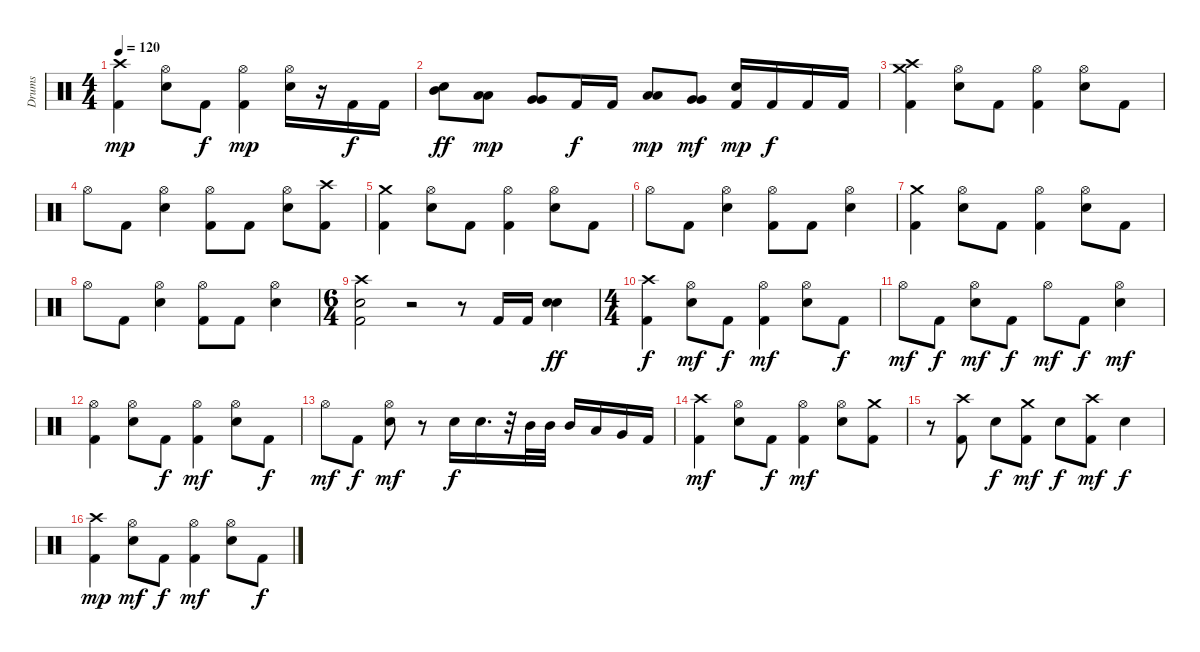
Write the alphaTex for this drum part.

\track ("Drums" "Drums") {instrument percussion}
\staff {score}
\articulation defaults
\ts (4 4)
\tempo 120
\clef neutral
\ks c
("Crash high (hit)" "Kick (hit) 2").4{dy mp} ("Hi-Hat (open)" "Snare (hit) 2").8 "Kick (hit) 2".8{dy f} ("Hi-Hat (open)" "Kick (hit) 2").4{dy mp} ("Hi-Hat (open)" "Snare (hit) 2").16 r.16 "Kick (hit) 2".16{dy f} "Kick (hit) 2".16 |
("Mid Tom (hit)" "Electric Snare (hit)").8{dy ff} ("Low Tom (hit)" "Low Tom (hit)").8{dy mp} ("Very Low Tom (hit)" "Very Low Tom (hit)").8 "Kick (hit) 2".16{dy f} "Kick (hit) 2".16 ("Low Tom (hit)" "Low Tom (hit)").8{dy mp} ("Very Low Tom (hit)" "Very Low Tom (hit)").8{dy mf} ("Electric Snare (hit)" "Kick (hit) 2").16{dy mp} "Kick (hit) 2".16{dy f} "Kick (hit) 2".16 "Kick (hit) 2".16 |
("Crash high (hit)" "Crash medium (hit)" "Kick (hit) 2").4{volume 11} ("Hi-Hat (open)" "Electric Snare (hit)").8 "Kick (hit) 2".8 ("Hi-Hat (open)" "Kick (hit) 2").4 ("Hi-Hat (open)" "Electric Snare (hit)").8 "Kick (hit) 2".8 |
"Hi-Hat (open)".8 "Kick (hit) 2".8 ("Hi-Hat (open)" "Electric Snare (hit)").4 ("Hi-Hat (open)" "Kick (hit) 2").8 "Kick (hit) 2".8 ("Hi-Hat (open)" "Electric Snare (hit)").8 ("Crash high (hit)" "Kick (hit) 2").8 |
("Crash medium (hit)" "Kick (hit) 2").4 ("Hi-Hat (open)" "Electric Snare (hit)").8 "Kick (hit) 2".8 ("Hi-Hat (open)" "Kick (hit) 2").4 ("Hi-Hat (open)" "Electric Snare (hit)").8 "Kick (hit) 2".8 |
"Hi-Hat (open)".8 "Kick (hit) 2".8 ("Hi-Hat (open)" "Electric Snare (hit)").4 ("Hi-Hat (open)" "Kick (hit) 2").8 "Kick (hit) 2".8 ("Hi-Hat (open)" "Electric Snare (hit)").4 |
("Crash medium (hit)" "Kick (hit) 2").4 ("Hi-Hat (open)" "Electric Snare (hit)").8 "Kick (hit) 2".8 ("Hi-Hat (open)" "Kick (hit) 2").4 ("Hi-Hat (open)" "Electric Snare (hit)").8 "Kick (hit) 2".8 |
"Hi-Hat (open)".8 "Kick (hit) 2".8 ("Hi-Hat (open)" "Electric Snare (hit)").4 ("Hi-Hat (open)" "Kick (hit) 2").8 "Kick (hit) 2".8 ("Hi-Hat (open)" "Electric Snare (hit)").4 |
\ts (6 4)
("Crash high (hit)" "Electric Snare (hit)" "Kick (hit) 2").2 r.2 r.8 "Kick (hit) 2".16{volume 11} "Kick (hit) 2".16 ("Electric Snare (hit)" "Electric Snare (hit)").4{dy ff} |
\ts (4 4)
("Crash high (hit)" "Kick (hit) 2").4{dy f} ("Hi-Hat (open)" "Snare (hit) 2").8{dy mf} "Kick (hit) 2".8{dy f} ("Hi-Hat (open)" "Kick (hit) 2").4{dy mf} ("Hi-Hat (open)" "Snare (hit) 2").8 "Kick (hit) 2".8{dy f} |
"Hi-Hat (open)".8{dy mf} "Kick (hit) 2".8{dy f} ("Hi-Hat (open)" "Snare (hit) 2").8{dy mf} "Kick (hit) 2".8{dy f} "Hi-Hat (open)".8{dy mf} "Kick (hit) 2".8{dy f} ("Hi-Hat (open)" "Snare (hit) 2").4{dy mf} |
("Hi-Hat (open)" "Kick (hit) 2").4 ("Hi-Hat (open)" "Snare (hit) 2").8 "Kick (hit) 2".8{dy f} ("Hi-Hat (open)" "Kick (hit) 2").4{dy mf} ("Hi-Hat (open)" "Snare (hit) 2").8 "Kick (hit) 2".8{dy f} |
"Hi-Hat (open)".8{dy mf} "Kick (hit) 2".8{dy f} ("Hi-Hat (open)" "Snare (hit) 2").8{dy mf} r.8 "Electric Snare (hit)".16{dy f} "Electric Snare (hit)".16{d} r.32 "Mid Tom (hit)".32 "Mid Tom (hit)".32 "Mid Tom (hit)".16 "Low Tom (hit)".16 "Very Low Tom (hit)".16 "Kick (hit) 2".16 |
("Crash high (hit)" "Kick (hit) 2").4{dy mf} ("Hi-Hat (open)" "Snare (hit) 2").8 "Kick (hit) 2".8{dy f} ("Hi-Hat (open)" "Kick (hit) 2").4{dy mf} ("Hi-Hat (open)" "Snare (hit) 2").8 ("Crash medium (hit)" "Kick (hit) 2").8 |
r.8 ("Crash high (hit)" "Kick (hit) 2").8 "Snare (hit) 2".8{dy f} ("Crash medium (hit)" "Kick (hit) 2").8{dy mf} "Snare (hit) 2".8{dy f} ("Crash high (hit)" "Kick (hit) 2").8{dy mf} "Snare (hit) 2".4{dy f} |
("Crash high (hit)" "Kick (hit) 2").4{dy mp} ("Hi-Hat (open)" "Snare (hit) 2").8{dy mf} "Kick (hit) 2".8{dy f} ("Hi-Hat (open)" "Kick (hit) 2").4{dy mf} ("Hi-Hat (open)" "Snare (hit) 2").8 "Kick (hit) 2".8{dy f}
